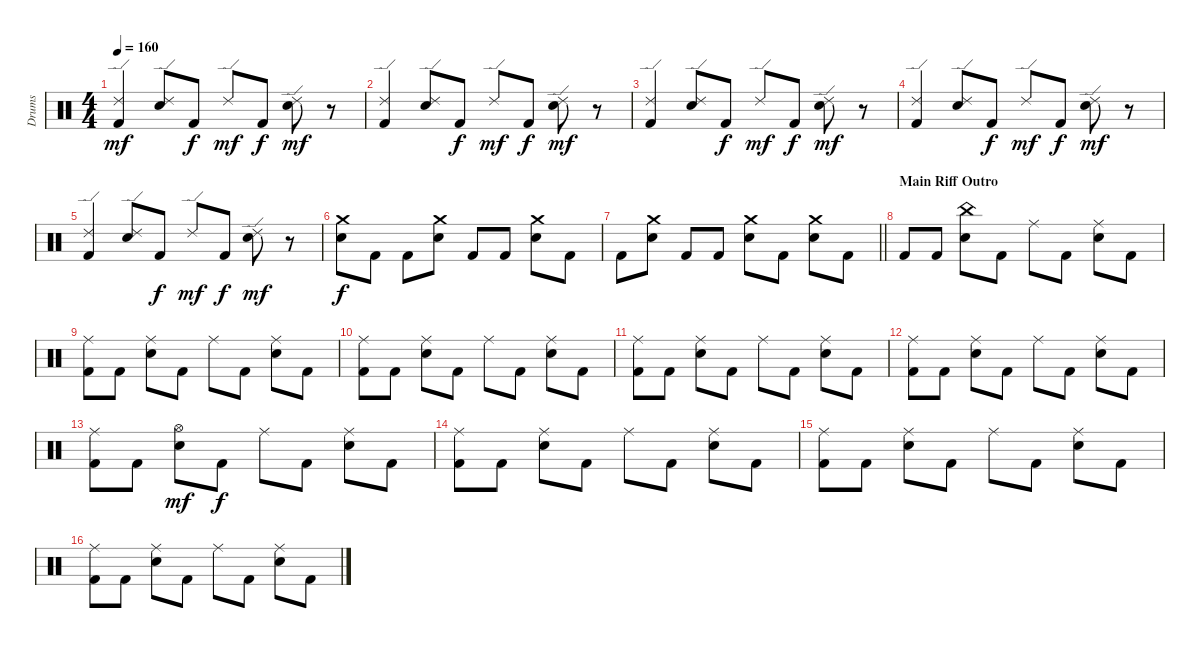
\track ("Drums" "Drums") {instrument percussion}
\staff {score}
\articulation defaults
\ts (4 4)
\tempo 160
\clef neutral
\ks c
("Ride (edge) 2" "Kick (hit) 2").4{dy mf} ("Ride (edge) 2" "Electric Snare (hit)").8 "Kick (hit) 2".8{dy f} "Ride (edge) 2".8{dy mf} "Kick (hit) 2".8{dy f} ("Ride (edge) 2" "Electric Snare (hit)").8{dy mf} r.8 |
("Ride (edge) 2" "Kick (hit) 2").4 ("Ride (edge) 2" "Electric Snare (hit)").8 "Kick (hit) 2".8{dy f} "Ride (edge) 2".8{dy mf} "Kick (hit) 2".8{dy f} ("Ride (edge) 2" "Electric Snare (hit)").8{dy mf} r.8 |
("Ride (edge) 2" "Kick (hit) 2").4 ("Ride (edge) 2" "Electric Snare (hit)").8 "Kick (hit) 2".8{dy f} "Ride (edge) 2".8{dy mf} "Kick (hit) 2".8{dy f} ("Ride (edge) 2" "Electric Snare (hit)").8{dy mf} r.8 |
("Ride (edge) 2" "Kick (hit) 2").4 ("Ride (edge) 2" "Electric Snare (hit)").8 "Kick (hit) 2".8{dy f} "Ride (edge) 2".8{dy mf} "Kick (hit) 2".8{dy f} ("Ride (edge) 2" "Electric Snare (hit)").8{dy mf} r.8 |
("Ride (edge) 2" "Kick (hit) 2").4 ("Ride (edge) 2" "Electric Snare (hit)").8 "Kick (hit) 2".8{dy f} "Ride (edge) 2".8{dy mf} "Kick (hit) 2".8{dy f} ("Ride (edge) 2" "Electric Snare (hit)").8{dy mf} r.8 |
("Crash medium (hit)" "Electric Snare (hit)").8{dy f} "Kick (hit) 2".8 "Kick (hit) 2".8 ("Crash medium (hit)" "Electric Snare (hit)").8 "Kick (hit) 2".8 "Kick (hit) 2".8 ("Crash medium (hit)" "Electric Snare (hit)").8 "Kick (hit) 2".8 |
\barLineRight lightlight "Kick (hit) 2".8
("Crash medium (hit)" "Electric Snare (hit)").8 "Kick (hit) 2".8 "Kick (hit) 2".8 ("Crash medium (hit)" "Electric Snare (hit)").8 "Kick (hit) 2".8 ("Crash medium (hit)" "Electric Snare (hit)").8 "Kick (hit) 2".8 |
\section ("" "Main Riff Outro")
"Kick (hit) 2".8 "Kick (hit) 2".8 ("China (hit)" "Electric Snare (hit)").8 "Kick (hit) 2".8 "Ride (middle)".8 "Kick (hit) 2".8 ("Ride (middle)" "Electric Snare (hit)").8 "Kick (hit) 2".8 |
("Ride (middle)" "Kick (hit) 2").8 "Kick (hit) 2".8 ("Ride (middle)" "Electric Snare (hit)").8 "Kick (hit) 2".8 "Ride (middle)".8 "Kick (hit) 2".8 ("Ride (middle)" "Electric Snare (hit)").8 "Kick (hit) 2".8 |
("Ride (middle)" "Kick (hit) 2").8 "Kick (hit) 2".8 ("Ride (middle)" "Electric Snare (hit)").8 "Kick (hit) 2".8 "Ride (middle)".8 "Kick (hit) 2".8 ("Ride (middle)" "Electric Snare (hit)").8 "Kick (hit) 2".8 |
("Ride (middle)" "Kick (hit) 2").8 "Kick (hit) 2".8 ("Ride (middle)" "Electric Snare (hit)").8 "Kick (hit) 2".8 "Ride (middle)".8 "Kick (hit) 2".8 ("Ride (middle)" "Electric Snare (hit)").8 "Kick (hit) 2".8 |
("Ride (middle)" "Kick (hit) 2").8 "Kick (hit) 2".8 ("Ride (middle)" "Electric Snare (hit)").8 "Kick (hit) 2".8 "Ride (middle)".8 "Kick (hit) 2".8 ("Ride (middle)" "Electric Snare (hit)").8 "Kick (hit) 2".8 |
("Ride (middle)" "Kick (hit) 2").8 "Kick (hit) 2".8 ("Hi-Hat (open)" "Electric Snare (hit)").8{dy mf} "Kick (hit) 2".8{dy f} "Ride (middle)".8 "Kick (hit) 2".8 ("Ride (middle)" "Electric Snare (hit)").8 "Kick (hit) 2".8 |
("Ride (middle)" "Kick (hit) 2").8 "Kick (hit) 2".8 ("Ride (middle)" "Electric Snare (hit)").8 "Kick (hit) 2".8 "Ride (middle)".8 "Kick (hit) 2".8 ("Ride (middle)" "Electric Snare (hit)").8 "Kick (hit) 2".8 |
("Ride (middle)" "Kick (hit) 2").8 "Kick (hit) 2".8 ("Ride (middle)" "Electric Snare (hit)").8 "Kick (hit) 2".8 "Ride (middle)".8 "Kick (hit) 2".8 ("Ride (middle)" "Electric Snare (hit)").8 "Kick (hit) 2".8 |
("Ride (middle)" "Kick (hit) 2").8 "Kick (hit) 2".8 ("Ride (middle)" "Electric Snare (hit)").8 "Kick (hit) 2".8 "Ride (middle)".8 "Kick (hit) 2".8 ("Ride (middle)" "Electric Snare (hit)").8 "Kick (hit) 2".8
